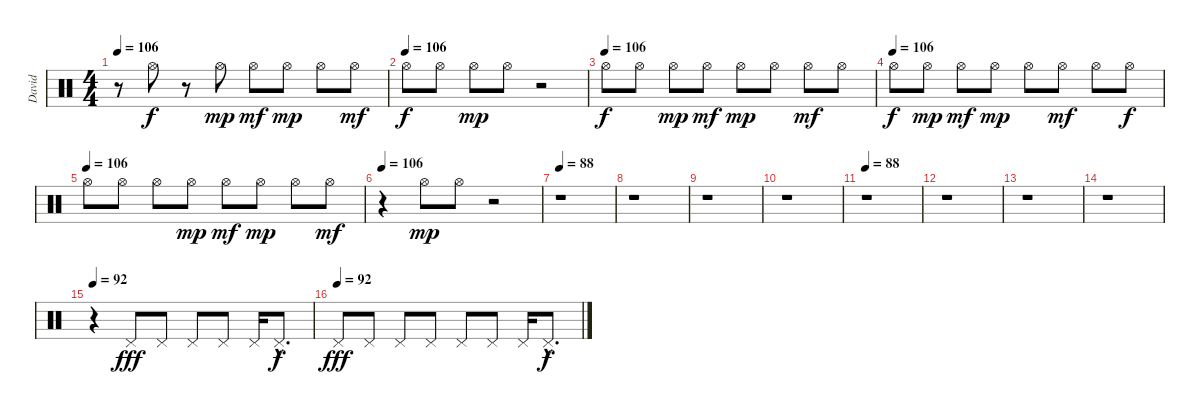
\track ("David" "David") {instrument percussion}
\staff {score}
\articulation defaults
\ts (4 4)
\tempo 106
\clef neutral
\ks c
r.8{dy f} "Hi-Hat (open)".8 r.8 "Hi-Hat (open)".8{dy mp} "Hi-Hat (open)".8{dy mf} "Hi-Hat (open)".8{dy mp} "Hi-Hat (open)".8 "Hi-Hat (open)".8{dy mf} |
\tempo (106)
"Hi-Hat (open)".8{dy f} "Hi-Hat (open)".8 "Hi-Hat (open)".8{dy mp} "Hi-Hat (open)".8 r.2 |
\tempo (106)
"Hi-Hat (open)".8{dy f} "Hi-Hat (open)".8 "Hi-Hat (open)".8{dy mp} "Hi-Hat (open)".8{dy mf} "Hi-Hat (open)".8{dy mp} "Hi-Hat (open)".8 "Hi-Hat (open)".8{dy mf} "Hi-Hat (open)".8 |
\tempo (106)
"Hi-Hat (open)".8{dy f} "Hi-Hat (open)".8{dy mp} "Hi-Hat (open)".8{dy mf} "Hi-Hat (open)".8{dy mp} "Hi-Hat (open)".8 "Hi-Hat (open)".8{dy mf} "Hi-Hat (open)".8 "Hi-Hat (open)".8{dy f} |
\tempo (106)
"Hi-Hat (open)".8 "Hi-Hat (open)".8 "Hi-Hat (open)".8 "Hi-Hat (open)".8{dy mp} "Hi-Hat (open)".8{dy mf} "Hi-Hat (open)".8{dy mp} "Hi-Hat (open)".8 "Hi-Hat (open)".8{dy mf} |
\tempo 106
r.4 "Hi-Hat (open)".8{dy mp} "Hi-Hat (open)".8 r.2 |
\tempo 88
r.1 |
r.1 |
r.1 |
r.1 |
\tempo 88
r.1 |
r.1 |
r.1 |
r.1 |
\tempo 92
r.4 "Pedal Hi-Hat (hit)".8{dy fff} "Pedal Hi-Hat (hit)".8 "Pedal Hi-Hat (hit)".8 "Pedal Hi-Hat (hit)".8 "Pedal Hi-Hat (hit)".16 "Pedal Hi-Hat (hit)"{hac}.8{d dy f} |
\tempo (92)
"Pedal Hi-Hat (hit)".8{dy fff} "Pedal Hi-Hat (hit)".8 "Pedal Hi-Hat (hit)".8 "Pedal Hi-Hat (hit)".8 "Pedal Hi-Hat (hit)".8 "Pedal Hi-Hat (hit)".8 "Pedal Hi-Hat (hit)".16 "Pedal Hi-Hat (hit)"{hac}.8{d dy f}
